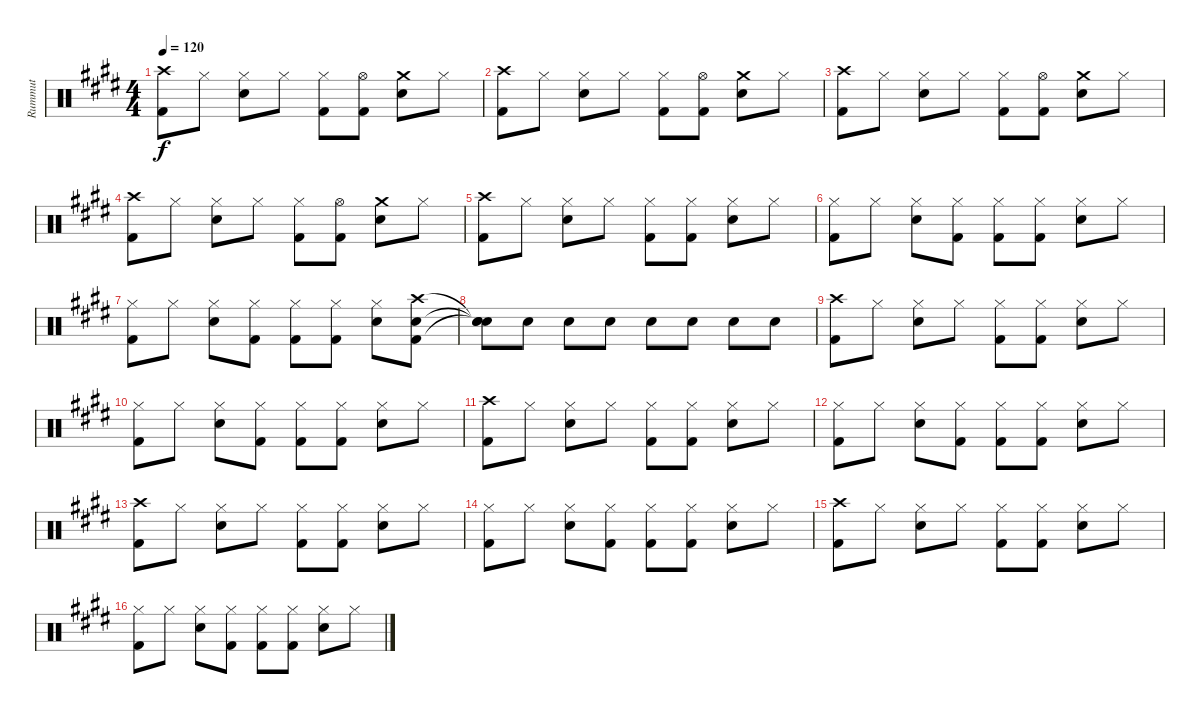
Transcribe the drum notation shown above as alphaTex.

\track ("Rummut" "Rummut") {instrument percussion}
\staff {score}
\articulation defaults
\ts (4 4)
\tempo 120
\clef neutral
\ks e
("Crash high (hit)" "Kick (hit) 2").8{dy f} "Hi-Hat (closed)".8 ("Hi-Hat (closed)" "Electric Snare (hit)").8 "Hi-Hat (closed)".8 ("Hi-Hat (closed)" "Kick (hit) 2").8 ("Hi-Hat (open)" "Kick (hit) 2").8 ("Crash medium (hit)" "Electric Snare (hit)").8 "Hi-Hat (closed)".8 |
("Crash high (hit)" "Kick (hit) 2").8 "Hi-Hat (closed)".8 ("Hi-Hat (closed)" "Electric Snare (hit)").8 "Hi-Hat (closed)".8 ("Hi-Hat (closed)" "Kick (hit) 2").8 ("Hi-Hat (open)" "Kick (hit) 2").8 ("Crash medium (hit)" "Electric Snare (hit)").8 "Hi-Hat (closed)".8 |
("Crash high (hit)" "Kick (hit) 2").8 "Hi-Hat (closed)".8 ("Hi-Hat (closed)" "Electric Snare (hit)").8 "Hi-Hat (closed)".8 ("Hi-Hat (closed)" "Kick (hit) 2").8 ("Hi-Hat (open)" "Kick (hit) 2").8 ("Crash medium (hit)" "Electric Snare (hit)").8 "Hi-Hat (closed)".8 |
("Crash high (hit)" "Kick (hit) 2").8 "Hi-Hat (closed)".8 ("Hi-Hat (closed)" "Electric Snare (hit)").8 "Hi-Hat (closed)".8 ("Hi-Hat (closed)" "Kick (hit) 2").8 ("Hi-Hat (open)" "Kick (hit) 2").8 ("Crash medium (hit)" "Electric Snare (hit)").8 "Hi-Hat (closed)".8 |
("Crash high (hit)" "Kick (hit) 2").8 "Hi-Hat (closed)".8 ("Hi-Hat (closed)" "Electric Snare (hit)").8 "Hi-Hat (closed)".8 ("Hi-Hat (closed)" "Kick (hit) 2").8 ("Hi-Hat (closed)" "Kick (hit) 2").8 ("Hi-Hat (closed)" "Electric Snare (hit)").8 "Hi-Hat (closed)".8 |
("Hi-Hat (closed)" "Kick (hit) 2").8 "Hi-Hat (closed)".8 ("Hi-Hat (closed)" "Electric Snare (hit)").8 ("Hi-Hat (closed)" "Kick (hit) 2").8 ("Hi-Hat (closed)" "Kick (hit) 2").8 ("Hi-Hat (closed)" "Kick (hit) 2").8 ("Hi-Hat (closed)" "Electric Snare (hit)").8 "Hi-Hat (closed)".8 |
("Hi-Hat (closed)" "Kick (hit) 2").8 "Hi-Hat (closed)".8 ("Hi-Hat (closed)" "Electric Snare (hit)").8 ("Hi-Hat (closed)" "Kick (hit) 2").8 ("Hi-Hat (closed)" "Kick (hit) 2").8 ("Hi-Hat (closed)" "Kick (hit) 2").8 ("Hi-Hat (closed)" "Electric Snare (hit)").8 ("Crash high (hit)" "Electric Snare (hit)" "Kick (hit) 2").8 |
("Snare (hit)"{t} "Snare (hit)"{t} "Snare (hit)"{t}).8 "Electric Snare (hit)".8 "Electric Snare (hit)".8 "Electric Snare (hit)".8 "Electric Snare (hit)".8 "Electric Snare (hit)".8 "Electric Snare (hit)".8 "Electric Snare (hit)".8 |
("Crash high (hit)" "Kick (hit) 2").8 "Hi-Hat (closed)".8 ("Hi-Hat (closed)" "Electric Snare (hit)").8 "Hi-Hat (closed)".8 ("Hi-Hat (closed)" "Kick (hit) 2").8 ("Hi-Hat (closed)" "Kick (hit) 2").8 ("Hi-Hat (closed)" "Electric Snare (hit)").8 "Hi-Hat (closed)".8 |
("Hi-Hat (closed)" "Kick (hit) 2").8 "Hi-Hat (closed)".8 ("Hi-Hat (closed)" "Electric Snare (hit)").8 ("Hi-Hat (closed)" "Kick (hit) 2").8 ("Hi-Hat (closed)" "Kick (hit) 2").8 ("Hi-Hat (closed)" "Kick (hit) 2").8 ("Hi-Hat (closed)" "Electric Snare (hit)").8 "Hi-Hat (closed)".8 |
("Crash high (hit)" "Kick (hit) 2").8 "Hi-Hat (closed)".8 ("Hi-Hat (closed)" "Electric Snare (hit)").8 "Hi-Hat (closed)".8 ("Hi-Hat (closed)" "Kick (hit) 2").8 ("Hi-Hat (closed)" "Kick (hit) 2").8 ("Hi-Hat (closed)" "Electric Snare (hit)").8 "Hi-Hat (closed)".8 |
("Hi-Hat (closed)" "Kick (hit) 2").8 "Hi-Hat (closed)".8 ("Hi-Hat (closed)" "Electric Snare (hit)").8 ("Hi-Hat (closed)" "Kick (hit) 2").8 ("Hi-Hat (closed)" "Kick (hit) 2").8 ("Hi-Hat (closed)" "Kick (hit) 2").8 ("Hi-Hat (closed)" "Electric Snare (hit)").8 "Hi-Hat (closed)".8 |
("Crash high (hit)" "Kick (hit) 2").8 "Hi-Hat (closed)".8 ("Hi-Hat (closed)" "Electric Snare (hit)").8 "Hi-Hat (closed)".8 ("Hi-Hat (closed)" "Kick (hit) 2").8 ("Hi-Hat (closed)" "Kick (hit) 2").8 ("Hi-Hat (closed)" "Electric Snare (hit)").8 "Hi-Hat (closed)".8 |
("Hi-Hat (closed)" "Kick (hit) 2").8 "Hi-Hat (closed)".8 ("Hi-Hat (closed)" "Electric Snare (hit)").8 ("Hi-Hat (closed)" "Kick (hit) 2").8 ("Hi-Hat (closed)" "Kick (hit) 2").8 ("Hi-Hat (closed)" "Kick (hit) 2").8 ("Hi-Hat (closed)" "Electric Snare (hit)").8 "Hi-Hat (closed)".8 |
("Crash high (hit)" "Kick (hit) 2").8 "Hi-Hat (closed)".8 ("Hi-Hat (closed)" "Electric Snare (hit)").8 "Hi-Hat (closed)".8 ("Hi-Hat (closed)" "Kick (hit) 2").8 ("Hi-Hat (closed)" "Kick (hit) 2").8 ("Hi-Hat (closed)" "Electric Snare (hit)").8 "Hi-Hat (closed)".8 |
("Hi-Hat (closed)" "Kick (hit) 2").8 "Hi-Hat (closed)".8 ("Hi-Hat (closed)" "Electric Snare (hit)").8 ("Hi-Hat (closed)" "Kick (hit) 2").8 ("Hi-Hat (closed)" "Kick (hit) 2").8 ("Hi-Hat (closed)" "Kick (hit) 2").8 ("Hi-Hat (closed)" "Electric Snare (hit)").8 "Hi-Hat (closed)".8
